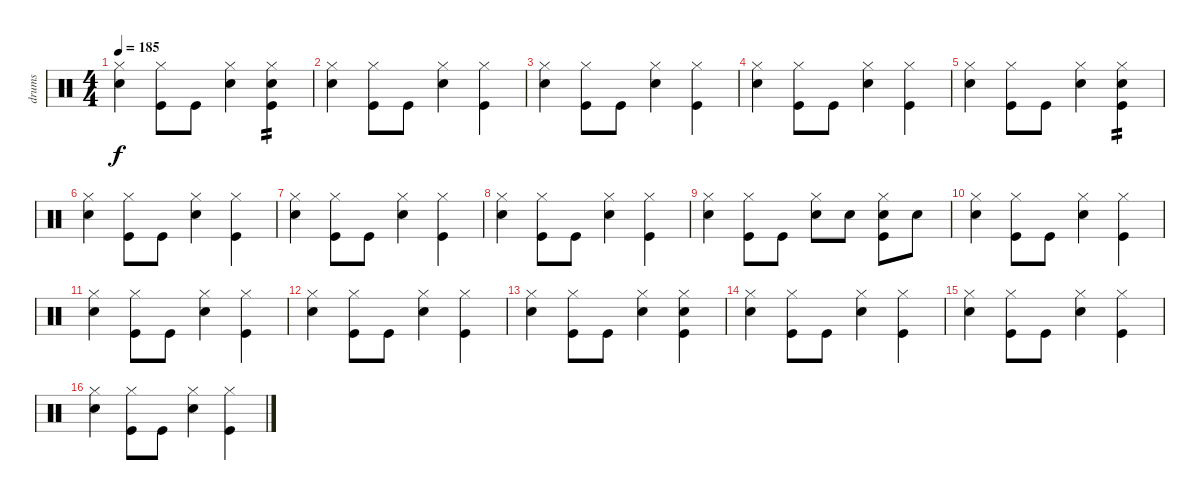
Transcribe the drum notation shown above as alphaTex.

\track ("drums" "drums") {instrument percussion}
\staff {score}
\articulation defaults
\ts (4 4)
\tempo 185
\clef neutral
\ks c
("Hi-Hat (closed)" "Electric Snare (hit)").4{dy f} ("Hi-Hat (closed)" "Kick (hit)").8 "Kick (hit)".8 ("Hi-Hat (closed)" "Electric Snare (hit)").4 ("Hi-Hat (closed)" "Electric Snare (hit)" "Kick (hit)").4{tp 2} |
("Hi-Hat (closed)" "Electric Snare (hit)").4 ("Hi-Hat (closed)" "Kick (hit)").8 "Kick (hit)".8 ("Hi-Hat (closed)" "Electric Snare (hit)").4 ("Hi-Hat (closed)" "Kick (hit)").4 |
("Hi-Hat (closed)" "Electric Snare (hit)").4 ("Hi-Hat (closed)" "Kick (hit)").8 "Kick (hit)".8 ("Hi-Hat (closed)" "Electric Snare (hit)").4 ("Hi-Hat (closed)" "Kick (hit)").4 |
("Hi-Hat (closed)" "Electric Snare (hit)").4 ("Hi-Hat (closed)" "Kick (hit)").8 "Kick (hit)".8 ("Hi-Hat (closed)" "Electric Snare (hit)").4 ("Hi-Hat (closed)" "Kick (hit)").4 |
("Hi-Hat (closed)" "Electric Snare (hit)").4 ("Hi-Hat (closed)" "Kick (hit)").8 "Kick (hit)".8 ("Hi-Hat (closed)" "Electric Snare (hit)").4 ("Hi-Hat (closed)" "Electric Snare (hit)" "Kick (hit)").4{tp 2} |
("Hi-Hat (closed)" "Electric Snare (hit)").4 ("Hi-Hat (closed)" "Kick (hit)").8 "Kick (hit)".8 ("Hi-Hat (closed)" "Electric Snare (hit)").4 ("Hi-Hat (closed)" "Kick (hit)").4 |
("Hi-Hat (closed)" "Electric Snare (hit)").4 ("Hi-Hat (closed)" "Kick (hit)").8 "Kick (hit)".8 ("Hi-Hat (closed)" "Electric Snare (hit)").4 ("Hi-Hat (closed)" "Kick (hit)").4 |
("Hi-Hat (closed)" "Electric Snare (hit)").4 ("Hi-Hat (closed)" "Kick (hit)").8 "Kick (hit)".8 ("Hi-Hat (closed)" "Electric Snare (hit)").4 ("Hi-Hat (closed)" "Kick (hit)").4 |
("Hi-Hat (closed)" "Electric Snare (hit)").4 ("Hi-Hat (closed)" "Kick (hit)").8 "Kick (hit)".8 ("Hi-Hat (closed)" "Electric Snare (hit)").8 "Electric Snare (hit)".8 ("Hi-Hat (closed)" "Electric Snare (hit)" "Kick (hit)").8 "Electric Snare (hit)".8 |
("Hi-Hat (closed)" "Electric Snare (hit)").4 ("Hi-Hat (closed)" "Kick (hit)").8 "Kick (hit)".8 ("Hi-Hat (closed)" "Electric Snare (hit)").4 ("Hi-Hat (closed)" "Kick (hit)").4 |
("Hi-Hat (closed)" "Electric Snare (hit)").4 ("Hi-Hat (closed)" "Kick (hit)").8 "Kick (hit)".8 ("Hi-Hat (closed)" "Electric Snare (hit)").4 ("Hi-Hat (closed)" "Kick (hit)").4 |
("Hi-Hat (closed)" "Electric Snare (hit)").4 ("Hi-Hat (closed)" "Kick (hit)").8 "Kick (hit)".8 ("Hi-Hat (closed)" "Electric Snare (hit)").4 ("Hi-Hat (closed)" "Kick (hit)").4 |
("Hi-Hat (closed)" "Electric Snare (hit)").4 ("Hi-Hat (closed)" "Kick (hit)").8 "Kick (hit)".8 ("Hi-Hat (closed)" "Electric Snare (hit)").4 ("Hi-Hat (closed)" "Electric Snare (hit)" "Kick (hit)").4 |
("Hi-Hat (closed)" "Electric Snare (hit)").4 ("Hi-Hat (closed)" "Kick (hit)").8 "Kick (hit)".8 ("Hi-Hat (closed)" "Electric Snare (hit)").4 ("Hi-Hat (closed)" "Kick (hit)").4 |
("Hi-Hat (closed)" "Electric Snare (hit)").4 ("Hi-Hat (closed)" "Kick (hit)").8 "Kick (hit)".8 ("Hi-Hat (closed)" "Electric Snare (hit)").4 ("Hi-Hat (closed)" "Kick (hit)").4 |
("Hi-Hat (closed)" "Electric Snare (hit)").4 ("Hi-Hat (closed)" "Kick (hit)").8 "Kick (hit)".8 ("Hi-Hat (closed)" "Electric Snare (hit)").4 ("Hi-Hat (closed)" "Kick (hit)").4
